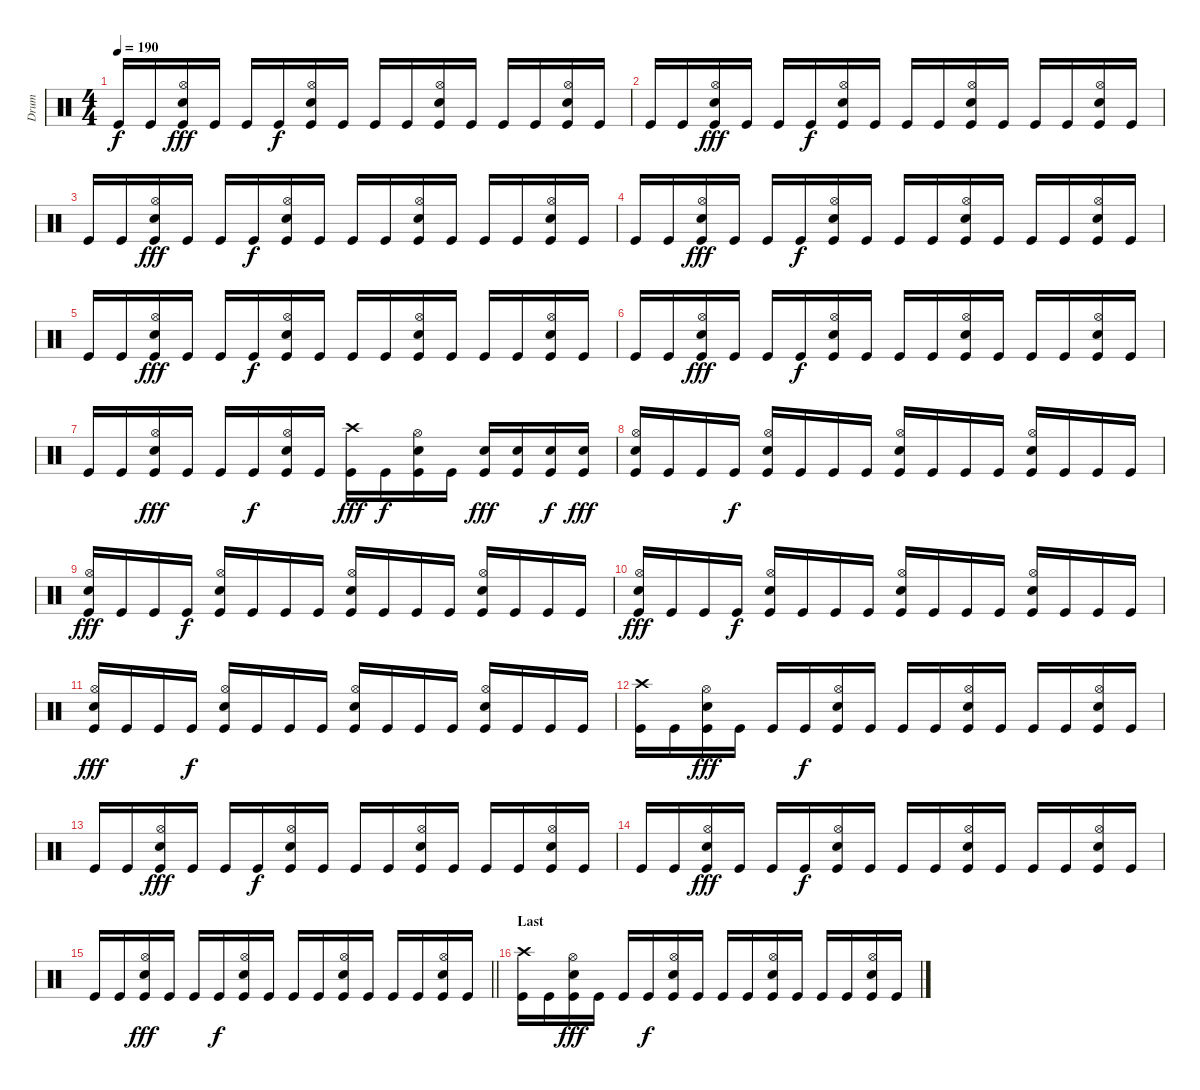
\track ("Drum" "Drum") {instrument percussion}
\staff {score}
\articulation defaults
\ts (4 4)
\tempo 190
\clef neutral
\ks c "Kick (hit)".16{dy f} "Kick (hit)".16
("Hi-Hat (open)" "Snare (hit) 2" "Kick (hit)").16{dy fff} "Kick (hit)".16 "Kick (hit)".16 "Kick (hit)".16{dy f} ("Hi-Hat (open)" "Snare (hit) 2" "Kick (hit)").16 "Kick (hit)".16 "Kick (hit)".16 "Kick (hit)".16 ("Hi-Hat (open)" "Snare (hit) 2" "Kick (hit)").16 "Kick (hit)".16 "Kick (hit)".16 "Kick (hit)".16 ("Hi-Hat (open)" "Snare (hit) 2" "Kick (hit)").16 "Kick (hit)".16 |
"Kick (hit)".16 "Kick (hit)".16 ("Hi-Hat (open)" "Snare (hit) 2" "Kick (hit)").16{dy fff} "Kick (hit)".16 "Kick (hit)".16 "Kick (hit)".16{dy f} ("Hi-Hat (open)" "Snare (hit) 2" "Kick (hit)").16 "Kick (hit)".16 "Kick (hit)".16 "Kick (hit)".16 ("Hi-Hat (open)" "Snare (hit) 2" "Kick (hit)").16 "Kick (hit)".16 "Kick (hit)".16 "Kick (hit)".16 ("Hi-Hat (open)" "Snare (hit) 2" "Kick (hit)").16 "Kick (hit)".16 |
"Kick (hit)".16 "Kick (hit)".16 ("Hi-Hat (open)" "Snare (hit) 2" "Kick (hit)").16{dy fff} "Kick (hit)".16 "Kick (hit)".16 "Kick (hit)".16{dy f} ("Hi-Hat (open)" "Snare (hit) 2" "Kick (hit)").16 "Kick (hit)".16 "Kick (hit)".16 "Kick (hit)".16 ("Hi-Hat (open)" "Snare (hit) 2" "Kick (hit)").16 "Kick (hit)".16 "Kick (hit)".16 "Kick (hit)".16 ("Hi-Hat (open)" "Snare (hit) 2" "Kick (hit)").16 "Kick (hit)".16 |
"Kick (hit)".16 "Kick (hit)".16 ("Hi-Hat (open)" "Snare (hit) 2" "Kick (hit)").16{dy fff} "Kick (hit)".16 "Kick (hit)".16 "Kick (hit)".16{dy f} ("Hi-Hat (open)" "Snare (hit) 2" "Kick (hit)").16 "Kick (hit)".16 "Kick (hit)".16 "Kick (hit)".16 ("Hi-Hat (open)" "Snare (hit) 2" "Kick (hit)").16 "Kick (hit)".16 "Kick (hit)".16 "Kick (hit)".16 ("Hi-Hat (open)" "Snare (hit) 2" "Kick (hit)").16 "Kick (hit)".16 |
"Kick (hit)".16 "Kick (hit)".16 ("Hi-Hat (open)" "Snare (hit) 2" "Kick (hit)").16{dy fff} "Kick (hit)".16 "Kick (hit)".16 "Kick (hit)".16{dy f} ("Hi-Hat (open)" "Snare (hit) 2" "Kick (hit)").16 "Kick (hit)".16 "Kick (hit)".16 "Kick (hit)".16 ("Hi-Hat (open)" "Snare (hit) 2" "Kick (hit)").16 "Kick (hit)".16 "Kick (hit)".16 "Kick (hit)".16 ("Hi-Hat (open)" "Snare (hit) 2" "Kick (hit)").16 "Kick (hit)".16 |
"Kick (hit)".16 "Kick (hit)".16 ("Hi-Hat (open)" "Snare (hit) 2" "Kick (hit)").16{dy fff} "Kick (hit)".16 "Kick (hit)".16 "Kick (hit)".16{dy f} ("Hi-Hat (open)" "Snare (hit) 2" "Kick (hit)").16 "Kick (hit)".16 "Kick (hit)".16 "Kick (hit)".16 ("Hi-Hat (open)" "Snare (hit) 2" "Kick (hit)").16 "Kick (hit)".16 "Kick (hit)".16 "Kick (hit)".16 ("Hi-Hat (open)" "Snare (hit) 2" "Kick (hit)").16 "Kick (hit)".16 |
"Kick (hit)".16 "Kick (hit)".16 ("Hi-Hat (open)" "Snare (hit) 2" "Kick (hit)").16{dy fff} "Kick (hit)".16 "Kick (hit)".16 "Kick (hit)".16{dy f} ("Hi-Hat (open)" "Snare (hit) 2" "Kick (hit)").16 "Kick (hit)".16 ("Crash high (hit)" "Kick (hit)").16{dy fff} "Kick (hit)".16{dy f} ("Hi-Hat (open)" "Snare (hit) 2" "Kick (hit)").16 "Kick (hit)".16 ("Snare (hit) 2" "Kick (hit)").16{dy fff} ("Snare (hit) 2" "Kick (hit)").16 ("Snare (hit) 2" "Kick (hit)").16{dy f} ("Snare (hit) 2" "Kick (hit)").16{dy fff} |
("Hi-Hat (open)" "Snare (hit) 2" "Kick (hit)").16 "Kick (hit)".16 "Kick (hit)".16 "Kick (hit)".16{dy f} ("Hi-Hat (open)" "Snare (hit) 2" "Kick (hit)").16 "Kick (hit)".16 "Kick (hit)".16 "Kick (hit)".16 ("Hi-Hat (open)" "Snare (hit) 2" "Kick (hit)").16 "Kick (hit)".16 "Kick (hit)".16 "Kick (hit)".16 ("Hi-Hat (open)" "Snare (hit) 2" "Kick (hit)").16 "Kick (hit)".16 "Kick (hit)".16 "Kick (hit)".16 |
("Hi-Hat (open)" "Snare (hit) 2" "Kick (hit)").16{dy fff} "Kick (hit)".16 "Kick (hit)".16 "Kick (hit)".16{dy f} ("Hi-Hat (open)" "Snare (hit) 2" "Kick (hit)").16 "Kick (hit)".16 "Kick (hit)".16 "Kick (hit)".16 ("Hi-Hat (open)" "Snare (hit) 2" "Kick (hit)").16 "Kick (hit)".16 "Kick (hit)".16 "Kick (hit)".16 ("Hi-Hat (open)" "Snare (hit) 2" "Kick (hit)").16 "Kick (hit)".16 "Kick (hit)".16 "Kick (hit)".16 |
("Hi-Hat (open)" "Snare (hit) 2" "Kick (hit)").16{dy fff} "Kick (hit)".16 "Kick (hit)".16 "Kick (hit)".16{dy f} ("Hi-Hat (open)" "Snare (hit) 2" "Kick (hit)").16 "Kick (hit)".16 "Kick (hit)".16 "Kick (hit)".16 ("Hi-Hat (open)" "Snare (hit) 2" "Kick (hit)").16 "Kick (hit)".16 "Kick (hit)".16 "Kick (hit)".16 ("Hi-Hat (open)" "Snare (hit) 2" "Kick (hit)").16 "Kick (hit)".16 "Kick (hit)".16 "Kick (hit)".16 |
("Hi-Hat (open)" "Snare (hit) 2" "Kick (hit)").16{dy fff} "Kick (hit)".16 "Kick (hit)".16 "Kick (hit)".16{dy f} ("Hi-Hat (open)" "Snare (hit) 2" "Kick (hit)").16 "Kick (hit)".16 "Kick (hit)".16 "Kick (hit)".16 ("Hi-Hat (open)" "Snare (hit) 2" "Kick (hit)").16 "Kick (hit)".16 "Kick (hit)".16 "Kick (hit)".16 ("Hi-Hat (open)" "Snare (hit) 2" "Kick (hit)").16 "Kick (hit)".16 "Kick (hit)".16 "Kick (hit)".16 |
("Crash high (hit)" "Kick (hit)").16 "Kick (hit)".16 ("Hi-Hat (open)" "Snare (hit) 2" "Kick (hit)").16{dy fff} "Kick (hit)".16 "Kick (hit)".16 "Kick (hit)".16{dy f} ("Hi-Hat (open)" "Snare (hit) 2" "Kick (hit)").16 "Kick (hit)".16 "Kick (hit)".16 "Kick (hit)".16 ("Hi-Hat (open)" "Snare (hit) 2" "Kick (hit)").16 "Kick (hit)".16 "Kick (hit)".16 "Kick (hit)".16 ("Hi-Hat (open)" "Snare (hit) 2" "Kick (hit)").16 "Kick (hit)".16 |
"Kick (hit)".16 "Kick (hit)".16 ("Hi-Hat (open)" "Snare (hit) 2" "Kick (hit)").16{dy fff} "Kick (hit)".16 "Kick (hit)".16 "Kick (hit)".16{dy f} ("Hi-Hat (open)" "Snare (hit) 2" "Kick (hit)").16 "Kick (hit)".16 "Kick (hit)".16 "Kick (hit)".16 ("Hi-Hat (open)" "Snare (hit) 2" "Kick (hit)").16 "Kick (hit)".16 "Kick (hit)".16 "Kick (hit)".16 ("Hi-Hat (open)" "Snare (hit) 2" "Kick (hit)").16 "Kick (hit)".16 |
"Kick (hit)".16 "Kick (hit)".16 ("Hi-Hat (open)" "Snare (hit) 2" "Kick (hit)").16{dy fff} "Kick (hit)".16 "Kick (hit)".16 "Kick (hit)".16{dy f} ("Hi-Hat (open)" "Snare (hit) 2" "Kick (hit)").16 "Kick (hit)".16 "Kick (hit)".16 "Kick (hit)".16 ("Hi-Hat (open)" "Snare (hit) 2" "Kick (hit)").16 "Kick (hit)".16 "Kick (hit)".16 "Kick (hit)".16 ("Hi-Hat (open)" "Snare (hit) 2" "Kick (hit)").16 "Kick (hit)".16 |
\barLineRight lightlight "Kick (hit)".16 "Kick (hit)".16
("Hi-Hat (open)" "Snare (hit) 2" "Kick (hit)").16{dy fff} "Kick (hit)".16 "Kick (hit)".16 "Kick (hit)".16{dy f} ("Hi-Hat (open)" "Snare (hit) 2" "Kick (hit)").16 "Kick (hit)".16 "Kick (hit)".16 "Kick (hit)".16 ("Hi-Hat (open)" "Snare (hit) 2" "Kick (hit)").16 "Kick (hit)".16 "Kick (hit)".16 "Kick (hit)".16 ("Hi-Hat (open)" "Snare (hit) 2" "Kick (hit)").16 "Kick (hit)".16 |
\section ("" "Last")
("Crash high (hit)" "Kick (hit)").16 "Kick (hit)".16 ("Hi-Hat (open)" "Snare (hit) 2" "Kick (hit)").16{dy fff} "Kick (hit)".16 "Kick (hit)".16 "Kick (hit)".16{dy f} ("Hi-Hat (open)" "Snare (hit) 2" "Kick (hit)").16 "Kick (hit)".16 "Kick (hit)".16 "Kick (hit)".16 ("Hi-Hat (open)" "Snare (hit) 2" "Kick (hit)").16 "Kick (hit)".16 "Kick (hit)".16 "Kick (hit)".16 ("Hi-Hat (open)" "Snare (hit) 2" "Kick (hit)").16 "Kick (hit)".16
